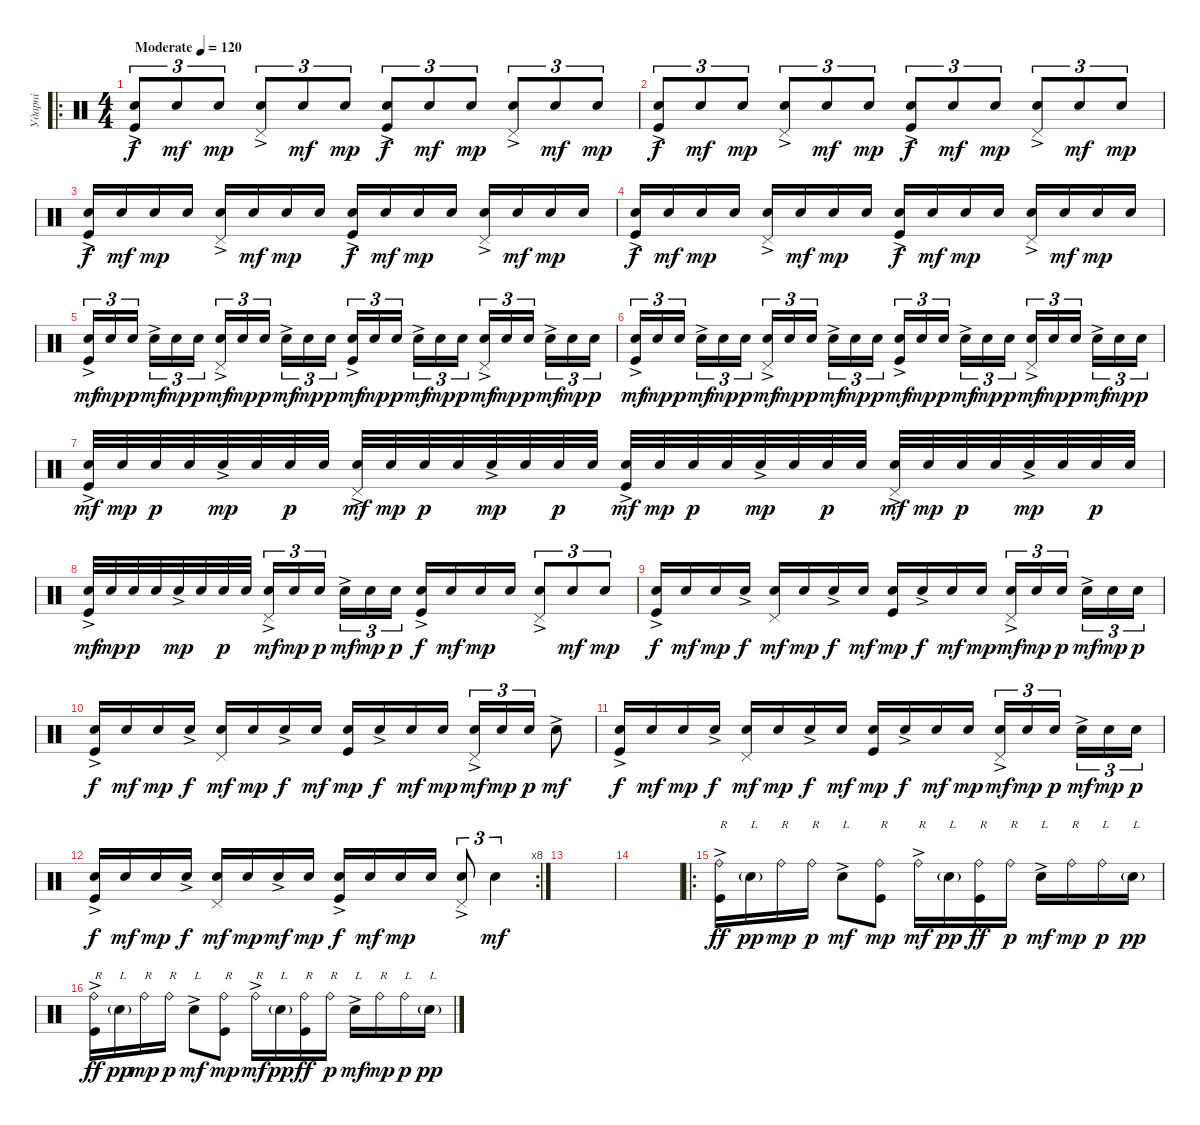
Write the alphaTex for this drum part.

\track ("Ударні" "Ударні") {instrument percussion}
\staff {score}
\articulation defaults
\ro
\ts (4 4)
\tempo (120 "Moderate")
\clef neutral
\ks c
("Snare (hit) 2"{ac} "Kick (hit)").8{tu (3 2) dy f} "Snare (hit) 2".8{tu (3 2) dy mf} "Snare (hit) 2".8{tu (3 2) dy mp} ("Pedal Hi-Hat (hit)" "Snare (hit) 2"{ac}).8{tu (3 2)} "Snare (hit) 2".8{tu (3 2) dy mf} "Snare (hit) 2".8{tu (3 2) dy mp} ("Snare (hit) 2"{ac} "Kick (hit)").8{tu (3 2) dy f} "Snare (hit) 2".8{tu (3 2) dy mf} "Snare (hit) 2".8{tu (3 2) dy mp} ("Pedal Hi-Hat (hit)" "Snare (hit) 2"{ac}).8{tu (3 2)} "Snare (hit) 2".8{tu (3 2) dy mf} "Snare (hit) 2".8{tu (3 2) dy mp} |
("Snare (hit) 2"{ac} "Kick (hit)").8{tu (3 2) dy f} "Snare (hit) 2".8{tu (3 2) dy mf} "Snare (hit) 2".8{tu (3 2) dy mp} ("Pedal Hi-Hat (hit)" "Snare (hit) 2"{ac}).8{tu (3 2)} "Snare (hit) 2".8{tu (3 2) dy mf} "Snare (hit) 2".8{tu (3 2) dy mp} ("Snare (hit) 2"{ac} "Kick (hit)").8{tu (3 2) dy f} "Snare (hit) 2".8{tu (3 2) dy mf} "Snare (hit) 2".8{tu (3 2) dy mp} ("Pedal Hi-Hat (hit)" "Snare (hit) 2"{ac}).8{tu (3 2)} "Snare (hit) 2".8{tu (3 2) dy mf} "Snare (hit) 2".8{tu (3 2) dy mp} |
("Snare (hit) 2"{ac} "Kick (hit)").16{dy f} "Snare (hit) 2".16{dy mf} "Snare (hit) 2".16{dy mp} "Snare (hit) 2".16 ("Pedal Hi-Hat (hit)" "Snare (hit) 2"{ac}).16 "Snare (hit) 2".16{dy mf} "Snare (hit) 2".16{dy mp} "Snare (hit) 2".16 ("Snare (hit) 2"{ac} "Kick (hit)").16{dy f} "Snare (hit) 2".16{dy mf} "Snare (hit) 2".16{dy mp} "Snare (hit) 2".16 ("Pedal Hi-Hat (hit)" "Snare (hit) 2"{ac}).16 "Snare (hit) 2".16{dy mf} "Snare (hit) 2".16{dy mp} "Snare (hit) 2".16 |
("Snare (hit) 2"{ac} "Kick (hit)").16{dy f} "Snare (hit) 2".16{dy mf} "Snare (hit) 2".16{dy mp} "Snare (hit) 2".16 ("Pedal Hi-Hat (hit)" "Snare (hit) 2"{ac}).16 "Snare (hit) 2".16{dy mf} "Snare (hit) 2".16{dy mp} "Snare (hit) 2".16 ("Snare (hit) 2"{ac} "Kick (hit)").16{dy f} "Snare (hit) 2".16{dy mf} "Snare (hit) 2".16{dy mp} "Snare (hit) 2".16 ("Pedal Hi-Hat (hit)" "Snare (hit) 2"{ac}).16 "Snare (hit) 2".16{dy mf} "Snare (hit) 2".16{dy mp} "Snare (hit) 2".16 |
("Snare (hit) 2"{ac} "Kick (hit)").16{tu (3 2) dy mf} "Snare (hit) 2".16{tu (3 2) dy mp} "Snare (hit) 2".16{tu (3 2) dy p beam splitsecondary} "Snare (hit) 2"{ac}.16{tu (3 2) dy mf} "Snare (hit) 2".16{tu (3 2) dy mp} "Snare (hit) 2".16{tu (3 2) dy p} ("Pedal Hi-Hat (hit)" "Snare (hit) 2"{ac}).16{tu (3 2) dy mf} "Snare (hit) 2".16{tu (3 2) dy mp} "Snare (hit) 2".16{tu (3 2) dy p beam splitsecondary} "Snare (hit) 2"{ac}.16{tu (3 2) dy mf} "Snare (hit) 2".16{tu (3 2) dy mp} "Snare (hit) 2".16{tu (3 2) dy p} ("Snare (hit) 2"{ac} "Kick (hit)").16{tu (3 2) dy mf} "Snare (hit) 2".16{tu (3 2) dy mp} "Snare (hit) 2".16{tu (3 2) dy p beam splitsecondary} "Snare (hit) 2"{ac}.16{tu (3 2) dy mf} "Snare (hit) 2".16{tu (3 2) dy mp} "Snare (hit) 2".16{tu (3 2) dy p} ("Pedal Hi-Hat (hit)" "Snare (hit) 2"{ac}).16{tu (3 2) dy mf} "Snare (hit) 2".16{tu (3 2) dy mp} "Snare (hit) 2".16{tu (3 2) dy p beam splitsecondary} "Snare (hit) 2"{ac}.16{tu (3 2) dy mf} "Snare (hit) 2".16{tu (3 2) dy mp} "Snare (hit) 2".16{tu (3 2) dy p} |
("Snare (hit) 2"{ac} "Kick (hit)").16{tu (3 2) dy mf} "Snare (hit) 2".16{tu (3 2) dy mp} "Snare (hit) 2".16{tu (3 2) dy p beam splitsecondary} "Snare (hit) 2"{ac}.16{tu (3 2) dy mf} "Snare (hit) 2".16{tu (3 2) dy mp} "Snare (hit) 2".16{tu (3 2) dy p} ("Pedal Hi-Hat (hit)" "Snare (hit) 2"{ac}).16{tu (3 2) dy mf} "Snare (hit) 2".16{tu (3 2) dy mp} "Snare (hit) 2".16{tu (3 2) dy p beam splitsecondary} "Snare (hit) 2"{ac}.16{tu (3 2) dy mf} "Snare (hit) 2".16{tu (3 2) dy mp} "Snare (hit) 2".16{tu (3 2) dy p} ("Snare (hit) 2"{ac} "Kick (hit)").16{tu (3 2) dy mf} "Snare (hit) 2".16{tu (3 2) dy mp} "Snare (hit) 2".16{tu (3 2) dy p beam splitsecondary} "Snare (hit) 2"{ac}.16{tu (3 2) dy mf} "Snare (hit) 2".16{tu (3 2) dy mp} "Snare (hit) 2".16{tu (3 2) dy p} ("Pedal Hi-Hat (hit)" "Snare (hit) 2"{ac}).16{tu (3 2) dy mf} "Snare (hit) 2".16{tu (3 2) dy mp} "Snare (hit) 2".16{tu (3 2) dy p beam splitsecondary} "Snare (hit) 2"{ac}.16{tu (3 2) dy mf} "Snare (hit) 2".16{tu (3 2) dy mp} "Snare (hit) 2".16{tu (3 2) dy p} |
("Snare (hit) 2"{ac} "Kick (hit)").32{dy mf} "Snare (hit) 2".32{dy mp} "Snare (hit) 2".32{dy p} "Snare (hit) 2".32 "Snare (hit) 2"{ac}.32{dy mp} "Snare (hit) 2".32 "Snare (hit) 2".32{dy p} "Snare (hit) 2".32 ("Pedal Hi-Hat (hit)" "Snare (hit) 2"{ac}).32{dy mf} "Snare (hit) 2".32{dy mp} "Snare (hit) 2".32{dy p} "Snare (hit) 2".32 "Snare (hit) 2"{ac}.32{dy mp} "Snare (hit) 2".32 "Snare (hit) 2".32{dy p} "Snare (hit) 2".32 ("Snare (hit) 2"{ac} "Kick (hit)").32{dy mf} "Snare (hit) 2".32{dy mp} "Snare (hit) 2".32{dy p} "Snare (hit) 2".32 "Snare (hit) 2"{ac}.32{dy mp} "Snare (hit) 2".32 "Snare (hit) 2".32{dy p} "Snare (hit) 2".32 ("Pedal Hi-Hat (hit)" "Snare (hit) 2"{ac}).32{dy mf} "Snare (hit) 2".32{dy mp} "Snare (hit) 2".32{dy p} "Snare (hit) 2".32 "Snare (hit) 2"{ac}.32{dy mp} "Snare (hit) 2".32 "Snare (hit) 2".32{dy p} "Snare (hit) 2".32 |
("Snare (hit) 2"{ac} "Kick (hit)").32{dy mf} "Snare (hit) 2".32{dy mp} "Snare (hit) 2".32{dy p} "Snare (hit) 2".32 "Snare (hit) 2"{ac}.32{dy mp} "Snare (hit) 2".32 "Snare (hit) 2".32{dy p} "Snare (hit) 2".32 ("Pedal Hi-Hat (hit)" "Snare (hit) 2"{ac}).16{tu (3 2) dy mf} "Snare (hit) 2".16{tu (3 2) dy mp} "Snare (hit) 2".16{tu (3 2) dy p beam splitsecondary} "Snare (hit) 2"{ac}.16{tu (3 2) dy mf} "Snare (hit) 2".16{tu (3 2) dy mp} "Snare (hit) 2".16{tu (3 2) dy p} ("Snare (hit) 2"{ac} "Kick (hit)").16{dy f} "Snare (hit) 2".16{dy mf} "Snare (hit) 2".16{dy mp} "Snare (hit) 2".16 ("Pedal Hi-Hat (hit)" "Snare (hit) 2"{ac}).8{tu (3 2)} "Snare (hit) 2".8{tu (3 2) dy mf} "Snare (hit) 2".8{tu (3 2) dy mp} |
("Snare (hit) 2"{ac} "Kick (hit)").16{dy f} "Snare (hit) 2".16{dy mf} "Snare (hit) 2".16{dy mp} "Snare (hit) 2"{ac}.16{dy f} ("Pedal Hi-Hat (hit)" "Snare (hit) 2").16{dy mf} "Snare (hit) 2".16{dy mp} "Snare (hit) 2"{ac}.16{dy f} "Snare (hit) 2".16{dy mf} ("Snare (hit) 2" "Kick (hit)").16{dy mp} "Snare (hit) 2"{ac}.16{dy f} "Snare (hit) 2".16{dy mf} "Snare (hit) 2".16{dy mp} ("Pedal Hi-Hat (hit)" "Snare (hit) 2"{ac}).16{tu (3 2) dy mf} "Snare (hit) 2".16{tu (3 2) dy mp} "Snare (hit) 2".16{tu (3 2) dy p beam splitsecondary} "Snare (hit) 2"{ac}.16{tu (3 2) dy mf} "Snare (hit) 2".16{tu (3 2) dy mp} "Snare (hit) 2".16{tu (3 2) dy p} |
("Snare (hit) 2"{ac} "Kick (hit)").16{dy f} "Snare (hit) 2".16{dy mf} "Snare (hit) 2".16{dy mp} "Snare (hit) 2"{ac}.16{dy f} ("Pedal Hi-Hat (hit)" "Snare (hit) 2").16{dy mf} "Snare (hit) 2".16{dy mp} "Snare (hit) 2"{ac}.16{dy f} "Snare (hit) 2".16{dy mf} ("Snare (hit) 2" "Kick (hit)").16{dy mp} "Snare (hit) 2"{ac}.16{dy f} "Snare (hit) 2".16{dy mf} "Snare (hit) 2".16{dy mp} ("Pedal Hi-Hat (hit)" "Snare (hit) 2"{ac}).16{tu (3 2) dy mf} "Snare (hit) 2".16{tu (3 2) dy mp} "Snare (hit) 2".16{tu (3 2) dy p} "Snare (hit) 2"{ac}.8{dy mf} |
("Snare (hit) 2"{ac} "Kick (hit)").16{dy f} "Snare (hit) 2".16{dy mf} "Snare (hit) 2".16{dy mp} "Snare (hit) 2"{ac}.16{dy f} ("Pedal Hi-Hat (hit)" "Snare (hit) 2").16{dy mf} "Snare (hit) 2".16{dy mp} "Snare (hit) 2"{ac}.16{dy f} "Snare (hit) 2".16{dy mf} ("Snare (hit) 2" "Kick (hit)").16{dy mp} "Snare (hit) 2"{ac}.16{dy f} "Snare (hit) 2".16{dy mf} "Snare (hit) 2".16{dy mp} ("Pedal Hi-Hat (hit)" "Snare (hit) 2"{ac}).16{tu (3 2) dy mf} "Snare (hit) 2".16{tu (3 2) dy mp} "Snare (hit) 2".16{tu (3 2) dy p beam splitsecondary} "Snare (hit) 2"{ac}.16{tu (3 2) dy mf} "Snare (hit) 2".16{tu (3 2) dy mp} "Snare (hit) 2".16{tu (3 2) dy p} |
\rc 8
("Snare (hit) 2"{ac} "Kick (hit)").16{dy f} "Snare (hit) 2".16{dy mf} "Snare (hit) 2".16{dy mp} "Snare (hit) 2"{ac}.16{dy f} ("Pedal Hi-Hat (hit)" "Snare (hit) 2").16{dy mf} "Snare (hit) 2".16{dy mp} "Snare (hit) 2"{ac}.16{dy mf} "Snare (hit) 2".16{dy mp} ("Snare (hit) 2"{ac} "Kick (hit)").16{dy f} "Snare (hit) 2".16{dy mf} "Snare (hit) 2".16{dy mp} "Snare (hit) 2".16 ("Pedal Hi-Hat (hit)" "Snare (hit) 2"{ac}).8{tu (3 2)} "Snare (hit) 2".4{tu (3 2) dy mf} |
|
|
\ro
("Ride (bell)"{ac} "Kick (hit)").16{txt "R" dy ff} "Snare (hit) 2"{g}.16{txt "L" dy pp} "Ride (bell)".16{txt "R" dy mp} "Ride (bell)".16{txt "R" dy p} "Snare (hit) 2"{ac}.8{txt "L" dy mf} ("Ride (bell)" "Kick (hit)").8{txt "R" dy mp} "Ride (bell)"{ac}.16{txt "R" dy mf} "Snare (hit) 2"{g}.16{txt "L" dy pp} ("Ride (bell)" "Kick (hit)").16{txt "R" dy ff} "Ride (bell)".16{txt "R" dy p} "Snare (hit) 2"{ac}.16{txt "L" dy mf} "Ride (bell)".16{txt "R" dy mp} "Ride (bell)".16{txt "L" dy p} "Snare (hit) 2"{g}.16{txt "L" dy pp} |
("Ride (bell)"{ac} "Kick (hit)").16{txt "R" dy ff} "Snare (hit) 2"{g}.16{txt "L" dy pp} "Ride (bell)".16{txt "R" dy mp} "Ride (bell)".16{txt "R" dy p} "Snare (hit) 2"{ac}.8{txt "L" dy mf} ("Ride (bell)" "Kick (hit)").8{txt "R" dy mp} "Ride (bell)"{ac}.16{txt "R" dy mf} "Snare (hit) 2"{g}.16{txt "L" dy pp} ("Ride (bell)" "Kick (hit)").16{txt "R" dy ff} "Ride (bell)".16{txt "R" dy p} "Snare (hit) 2"{ac}.16{txt "L" dy mf} "Ride (bell)".16{txt "R" dy mp} "Ride (bell)".16{txt "L" dy p} "Snare (hit) 2"{g}.16{txt "L" dy pp}
